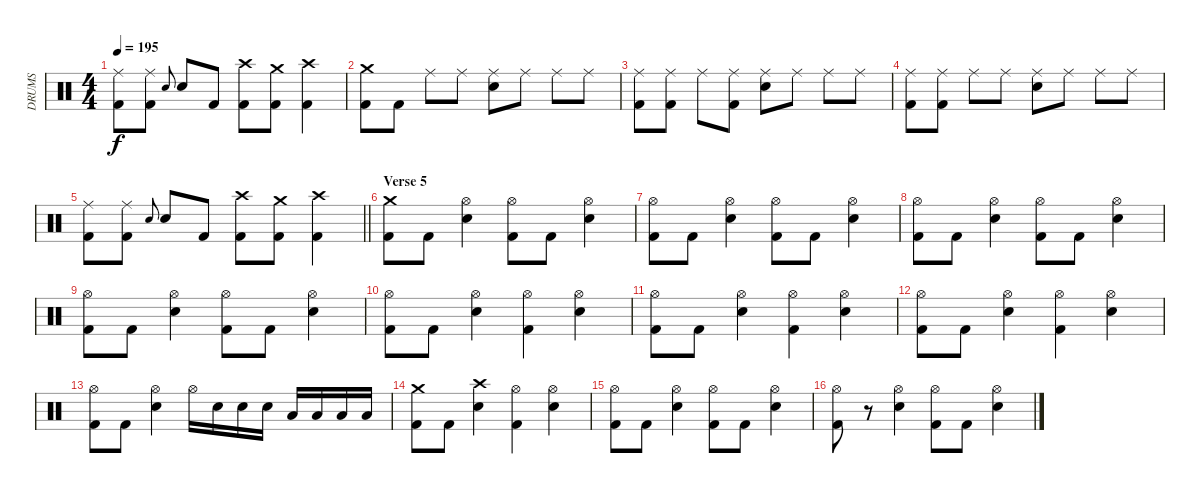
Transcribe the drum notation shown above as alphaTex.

\track ("DRUMS" "DRUMS") {instrument percussion}
\staff {score}
\articulation defaults
\ts (4 4)
\tempo 195
\clef neutral
\ks c
("Ride (middle)" "Kick (hit) 2").8{dy f} ("Ride (middle)" "Kick (hit) 2").8 "Snare (hit) 2".8{gr onbeat} "Snare (hit) 2".8 "Kick (hit) 2".8 ("Crash high (hit)" "Kick (hit) 2").8 ("Crash medium (hit)" "Kick (hit) 2").8 ("Crash high (hit)" "Kick (hit) 2").4 |
("Crash medium (hit)" "Kick (hit) 2").8 "Kick (hit) 2".8 "Ride (middle)".8 "Ride (middle)".8 ("Ride (middle)" "Snare (hit) 2").8 "Ride (middle)".8 "Ride (middle)".8 "Ride (middle)".8 |
("Ride (middle)" "Kick (hit) 2").8 ("Ride (middle)" "Kick (hit) 2").8 "Ride (middle)".8 ("Ride (middle)" "Kick (hit) 2").8 ("Ride (middle)" "Snare (hit) 2").8 "Ride (middle)".8 "Ride (middle)".8 "Ride (middle)".8 |
("Ride (middle)" "Kick (hit) 2").8 ("Ride (middle)" "Kick (hit) 2").8 "Ride (middle)".8 "Ride (middle)".8 ("Ride (middle)" "Snare (hit) 2").8 "Ride (middle)".8 "Ride (middle)".8 "Ride (middle)".8 |
\barLineRight lightlight
("Ride (middle)" "Kick (hit) 2").8 ("Ride (middle)" "Kick (hit) 2").8 "Snare (hit) 2".8{gr onbeat} "Snare (hit) 2".8 "Kick (hit) 2".8 ("Crash high (hit)" "Kick (hit) 2").8 ("Crash medium (hit)" "Kick (hit) 2").8 ("Crash high (hit)" "Kick (hit) 2").4 |
\section ("" "Verse 5")
("Crash medium (hit)" "Kick (hit) 2").8 "Kick (hit) 2".8 ("Hi-Hat (open)" "Snare (hit) 2").4 ("Hi-Hat (open)" "Kick (hit) 2").8 "Kick (hit) 2".8 ("Hi-Hat (open)" "Snare (hit) 2").4 |
("Hi-Hat (open)" "Kick (hit) 2").8 "Kick (hit) 2".8 ("Hi-Hat (open)" "Snare (hit) 2").4 ("Hi-Hat (open)" "Kick (hit) 2").8 "Kick (hit) 2".8 ("Hi-Hat (open)" "Snare (hit) 2").4 |
("Hi-Hat (open)" "Kick (hit) 2").8 "Kick (hit) 2".8 ("Hi-Hat (open)" "Snare (hit) 2").4 ("Hi-Hat (open)" "Kick (hit) 2").8 "Kick (hit) 2".8 ("Hi-Hat (open)" "Snare (hit) 2").4 |
("Hi-Hat (open)" "Kick (hit) 2").8 "Kick (hit) 2".8 ("Hi-Hat (open)" "Snare (hit) 2").4 ("Hi-Hat (open)" "Kick (hit) 2").8 "Kick (hit) 2".8 ("Hi-Hat (open)" "Snare (hit) 2").4 |
("Hi-Hat (open)" "Kick (hit) 2").8 "Kick (hit) 2".8 ("Hi-Hat (open)" "Snare (hit) 2").4 ("Hi-Hat (open)" "Kick (hit) 2").4 ("Hi-Hat (open)" "Snare (hit) 2").4 |
("Hi-Hat (open)" "Kick (hit) 2").8 "Kick (hit) 2".8 ("Hi-Hat (open)" "Snare (hit) 2").4 ("Hi-Hat (open)" "Kick (hit) 2").4 ("Hi-Hat (open)" "Snare (hit) 2").4 |
("Hi-Hat (open)" "Kick (hit) 2").8 "Kick (hit) 2".8 ("Hi-Hat (open)" "Snare (hit) 2").4 ("Hi-Hat (open)" "Kick (hit) 2").4 ("Hi-Hat (open)" "Snare (hit) 2").4 |
("Hi-Hat (open)" "Kick (hit) 2").8 "Kick (hit) 2".8 ("Hi-Hat (open)" "Snare (hit) 2").4 "Hi-Hat (open)".16 "Snare (hit) 2".16 "Snare (hit) 2".16 "Snare (hit) 2".16 "Low Tom (hit)".16 "Low Tom (hit)".16 "Low Tom (hit)".16 "Low Tom (hit)".16 |
("Crash medium (hit)" "Kick (hit) 2").8 "Kick (hit) 2".8 ("Crash high (hit)" "Snare (hit) 2").4 ("Hi-Hat (open)" "Kick (hit) 2").4 ("Hi-Hat (open)" "Snare (hit) 2").4 |
("Hi-Hat (open)" "Kick (hit) 2").8 "Kick (hit) 2".8 ("Hi-Hat (open)" "Snare (hit) 2").4 ("Hi-Hat (open)" "Kick (hit) 2").8 "Kick (hit) 2".8 ("Hi-Hat (open)" "Snare (hit) 2").4 |
("Hi-Hat (open)" "Kick (hit) 2").8 r.8 ("Hi-Hat (open)" "Snare (hit) 2").4 ("Hi-Hat (open)" "Kick (hit) 2").8 "Kick (hit) 2".8 ("Hi-Hat (open)" "Snare (hit) 2").4
